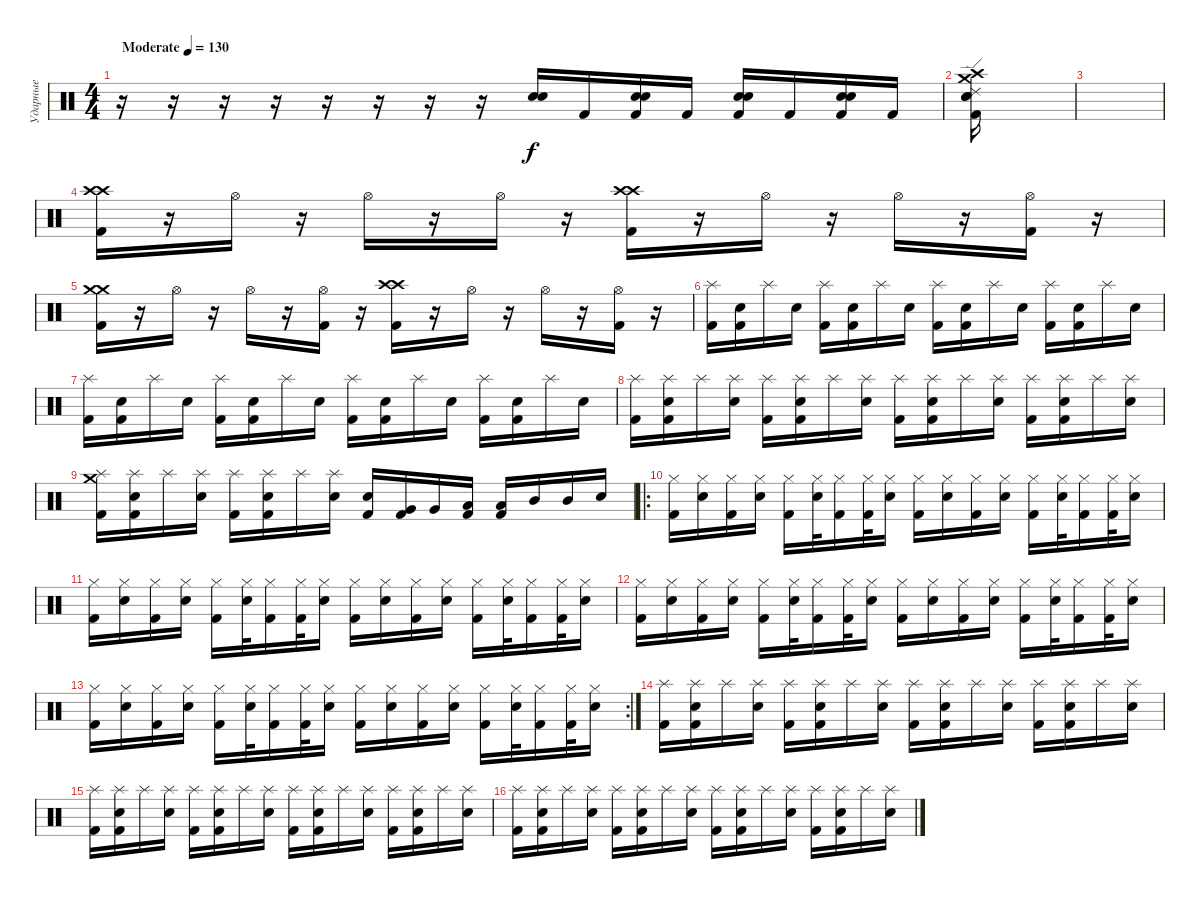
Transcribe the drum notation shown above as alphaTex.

\track ("Ударные" "Ударные") {instrument percussion}
\staff {score}
\articulation defaults
\ts (4 4)
\tempo (130 "Moderate")
\clef neutral
\ks c
r.16{dy f} r.16 r.16 r.16 r.16 r.16 r.16 r.16 ("Electric Snare (hit)" "Snare (hit) 2").16 "Kick (hit) 2".16 ("Electric Snare (hit)" "Snare (hit) 2" "Kick (hit) 2").16 "Kick (hit) 2".16 ("Electric Snare (hit)" "Snare (hit) 2" "Kick (hit) 2").16 "Kick (hit) 2".16 ("Electric Snare (hit)" "Snare (hit) 2" "Kick (hit) 2").16 "Kick (hit) 2".16 |
("Ride (edge) 2" "Crash high (hit)" "Crash medium (hit)" "Electric Snare (hit)" "Snare (hit) 2" "Kick (hit) 2").16 |
|
("Crash high (hit)" "Crash high (hit)" "Kick (hit) 2").16 r.16 "Hi-Hat (open)".16 r.16 "Hi-Hat (open)".16 r.16 "Hi-Hat (open)".16 r.16 ("Crash high (hit)" "Crash high (hit)" "Kick (hit) 2").16 r.16 "Hi-Hat (open)".16 r.16 "Hi-Hat (open)".16 r.16 ("Hi-Hat (open)" "Kick (hit) 2").16 r.16 |
("Crash medium (hit)" "Crash medium (hit)" "Kick (hit) 2").16 r.16 "Hi-Hat (open)".16 r.16 "Hi-Hat (open)".16 r.16 ("Hi-Hat (open)" "Kick (hit) 2").16 r.16 ("Crash high (hit)" "Crash high (hit)" "Kick (hit) 2").16 r.16 "Hi-Hat (open)".16 r.16 "Hi-Hat (open)".16 r.16 ("Hi-Hat (open)" "Kick (hit) 2").16 r.16 |
("Splash (hit)" "Kick (hit) 2").16 ("Electric Snare (hit)" "Kick (hit) 2").16 "Splash (hit)".16 "Electric Snare (hit)".16 ("Splash (hit)" "Kick (hit) 2").16 ("Electric Snare (hit)" "Kick (hit) 2").16 "Splash (hit)".16 "Electric Snare (hit)".16 ("Splash (hit)" "Kick (hit) 2").16 ("Electric Snare (hit)" "Kick (hit) 2").16 "Splash (hit)".16 "Electric Snare (hit)".16 ("Splash (hit)" "Kick (hit) 2").16 ("Electric Snare (hit)" "Kick (hit) 2").16 "Splash (hit)".16 "Electric Snare (hit)".16 |
("Splash (hit)" "Kick (hit) 2").16 ("Electric Snare (hit)" "Kick (hit) 2").16 "Splash (hit)".16 "Electric Snare (hit)".16 ("Splash (hit)" "Kick (hit) 2").16 ("Electric Snare (hit)" "Kick (hit) 2").16 "Splash (hit)".16 "Electric Snare (hit)".16 ("Splash (hit)" "Kick (hit) 2").16 ("Electric Snare (hit)" "Kick (hit) 2").16 "Splash (hit)".16 "Electric Snare (hit)".16 ("Splash (hit)" "Kick (hit) 2").16 ("Electric Snare (hit)" "Kick (hit) 2").16 "Splash (hit)".16 "Electric Snare (hit)".16 |
("Splash (hit)" "Kick (hit) 2").16 ("Electric Snare (hit)" "Splash (hit)" "Kick (hit) 2").16 "Splash (hit)".16 ("Electric Snare (hit)" "Splash (hit)").16 ("Splash (hit)" "Kick (hit) 2").16 ("Electric Snare (hit)" "Splash (hit)" "Kick (hit) 2").16 "Splash (hit)".16 ("Electric Snare (hit)" "Splash (hit)").16 ("Splash (hit)" "Kick (hit) 2").16 ("Electric Snare (hit)" "Splash (hit)" "Kick (hit) 2").16 "Splash (hit)".16 ("Electric Snare (hit)" "Splash (hit)").16 ("Splash (hit)" "Kick (hit) 2").16 ("Electric Snare (hit)" "Splash (hit)" "Kick (hit) 2").16 "Splash (hit)".16 ("Electric Snare (hit)" "Splash (hit)").16 |
("Crash medium (hit)" "Splash (hit)" "Kick (hit) 2").16 ("Electric Snare (hit)" "Splash (hit)" "Kick (hit) 2").16 "Splash (hit)".16 ("Electric Snare (hit)" "Splash (hit)").16 ("Splash (hit)" "Kick (hit) 2").16 ("Electric Snare (hit)" "Splash (hit)" "Kick (hit) 2").16 "Splash (hit)".16 ("Electric Snare (hit)" "Splash (hit)").16 ("Electric Snare (hit)" "Kick (hit) 2").16 ("Very Low Tom (hit)" "Kick (hit) 2").16 "Very Low Tom (hit)".16 ("Low Tom (hit)" "Kick (hit) 2").16 ("Low Tom (hit)" "Kick (hit) 2").16 "Mid Tom (hit)".16 "Mid Tom (hit)".16 "Snare (hit) 2".16 |
\ro
("Hi-Hat (closed)" "Kick (hit) 2").16 ("Hi-Hat (closed)" "Snare (hit) 2").16 ("Hi-Hat (closed)" "Kick (hit) 2").16 ("Hi-Hat (closed)" "Snare (hit) 2").16 ("Hi-Hat (closed)" "Kick (hit) 2").16 ("Hi-Hat (closed)" "Snare (hit) 2").32 ("Hi-Hat (closed)" "Kick (hit) 2").16 ("Hi-Hat (closed)" "Kick (hit) 2").32 ("Hi-Hat (closed)" "Snare (hit) 2").16 ("Hi-Hat (closed)" "Kick (hit) 2").16 ("Hi-Hat (closed)" "Snare (hit) 2").16 ("Hi-Hat (closed)" "Kick (hit) 2").16 ("Hi-Hat (closed)" "Snare (hit) 2").16 ("Hi-Hat (closed)" "Kick (hit) 2").16 ("Hi-Hat (closed)" "Snare (hit) 2").32 ("Hi-Hat (closed)" "Kick (hit) 2").16 ("Hi-Hat (closed)" "Kick (hit) 2").32 ("Hi-Hat (closed)" "Snare (hit) 2").16 |
("Hi-Hat (closed)" "Kick (hit) 2").16 ("Hi-Hat (closed)" "Snare (hit) 2").16 ("Hi-Hat (closed)" "Kick (hit) 2").16 ("Hi-Hat (closed)" "Snare (hit) 2").16 ("Hi-Hat (closed)" "Kick (hit) 2").16 ("Hi-Hat (closed)" "Snare (hit) 2").32 ("Hi-Hat (closed)" "Kick (hit) 2").16 ("Hi-Hat (closed)" "Kick (hit) 2").32 ("Hi-Hat (closed)" "Snare (hit) 2").16 ("Hi-Hat (closed)" "Kick (hit) 2").16 ("Hi-Hat (closed)" "Snare (hit) 2").16 ("Hi-Hat (closed)" "Kick (hit) 2").16 ("Hi-Hat (closed)" "Snare (hit) 2").16 ("Hi-Hat (closed)" "Kick (hit) 2").16 ("Hi-Hat (closed)" "Snare (hit) 2").32 ("Hi-Hat (closed)" "Kick (hit) 2").16 ("Hi-Hat (closed)" "Kick (hit) 2").32 ("Hi-Hat (closed)" "Snare (hit) 2").16 |
("Hi-Hat (closed)" "Kick (hit) 2").16 ("Hi-Hat (closed)" "Snare (hit) 2").16 ("Hi-Hat (closed)" "Kick (hit) 2").16 ("Hi-Hat (closed)" "Snare (hit) 2").16 ("Hi-Hat (closed)" "Kick (hit) 2").16 ("Hi-Hat (closed)" "Snare (hit) 2").32 ("Hi-Hat (closed)" "Kick (hit) 2").16 ("Hi-Hat (closed)" "Kick (hit) 2").32 ("Hi-Hat (closed)" "Snare (hit) 2").16 ("Hi-Hat (closed)" "Kick (hit) 2").16 ("Hi-Hat (closed)" "Snare (hit) 2").16 ("Hi-Hat (closed)" "Kick (hit) 2").16 ("Hi-Hat (closed)" "Snare (hit) 2").16 ("Hi-Hat (closed)" "Kick (hit) 2").16 ("Hi-Hat (closed)" "Snare (hit) 2").32 ("Hi-Hat (closed)" "Kick (hit) 2").16 ("Hi-Hat (closed)" "Kick (hit) 2").32 ("Hi-Hat (closed)" "Snare (hit) 2").16 |
\rc 2
("Hi-Hat (closed)" "Kick (hit) 2").16 ("Hi-Hat (closed)" "Snare (hit) 2").16 ("Hi-Hat (closed)" "Kick (hit) 2").16 ("Hi-Hat (closed)" "Snare (hit) 2").16 ("Hi-Hat (closed)" "Kick (hit) 2").16 ("Hi-Hat (closed)" "Snare (hit) 2").32 ("Hi-Hat (closed)" "Kick (hit) 2").16 ("Hi-Hat (closed)" "Kick (hit) 2").32 ("Hi-Hat (closed)" "Snare (hit) 2").16 ("Hi-Hat (closed)" "Kick (hit) 2").16 ("Hi-Hat (closed)" "Snare (hit) 2").16 ("Hi-Hat (closed)" "Kick (hit) 2").16 ("Hi-Hat (closed)" "Snare (hit) 2").16 ("Hi-Hat (closed)" "Kick (hit) 2").16 ("Hi-Hat (closed)" "Snare (hit) 2").32 ("Hi-Hat (closed)" "Kick (hit) 2").16 ("Hi-Hat (closed)" "Kick (hit) 2").32 ("Hi-Hat (closed)" "Snare (hit) 2").16 |
("Splash (hit)" "Kick (hit) 2").16 ("Electric Snare (hit)" "Splash (hit)" "Kick (hit) 2").16 "Splash (hit)".16 ("Electric Snare (hit)" "Splash (hit)").16 ("Splash (hit)" "Kick (hit) 2").16 ("Electric Snare (hit)" "Splash (hit)" "Kick (hit) 2").16 "Splash (hit)".16 ("Electric Snare (hit)" "Splash (hit)").16 ("Splash (hit)" "Kick (hit) 2").16 ("Electric Snare (hit)" "Splash (hit)" "Kick (hit) 2").16 "Splash (hit)".16 ("Electric Snare (hit)" "Splash (hit)").16 ("Splash (hit)" "Kick (hit) 2").16 ("Electric Snare (hit)" "Splash (hit)" "Kick (hit) 2").16 "Splash (hit)".16 ("Electric Snare (hit)" "Splash (hit)").16 |
("Splash (hit)" "Kick (hit) 2").16 ("Electric Snare (hit)" "Splash (hit)" "Kick (hit) 2").16 "Splash (hit)".16 ("Electric Snare (hit)" "Splash (hit)").16 ("Splash (hit)" "Kick (hit) 2").16 ("Electric Snare (hit)" "Splash (hit)" "Kick (hit) 2").16 "Splash (hit)".16 ("Electric Snare (hit)" "Splash (hit)").16 ("Splash (hit)" "Kick (hit) 2").16 ("Electric Snare (hit)" "Splash (hit)" "Kick (hit) 2").16 "Splash (hit)".16 ("Electric Snare (hit)" "Splash (hit)").16 ("Splash (hit)" "Kick (hit) 2").16 ("Electric Snare (hit)" "Splash (hit)" "Kick (hit) 2").16 "Splash (hit)".16 ("Electric Snare (hit)" "Splash (hit)").16 |
("Splash (hit)" "Kick (hit) 2").16 ("Electric Snare (hit)" "Splash (hit)" "Kick (hit) 2").16 "Splash (hit)".16 ("Electric Snare (hit)" "Splash (hit)").16 ("Splash (hit)" "Kick (hit) 2").16 ("Electric Snare (hit)" "Splash (hit)" "Kick (hit) 2").16 "Splash (hit)".16 ("Electric Snare (hit)" "Splash (hit)").16 ("Splash (hit)" "Kick (hit) 2").16 ("Electric Snare (hit)" "Splash (hit)" "Kick (hit) 2").16 "Splash (hit)".16 ("Electric Snare (hit)" "Splash (hit)").16 ("Splash (hit)" "Kick (hit) 2").16 ("Electric Snare (hit)" "Splash (hit)" "Kick (hit) 2").16 "Splash (hit)".16 ("Electric Snare (hit)" "Splash (hit)").16
